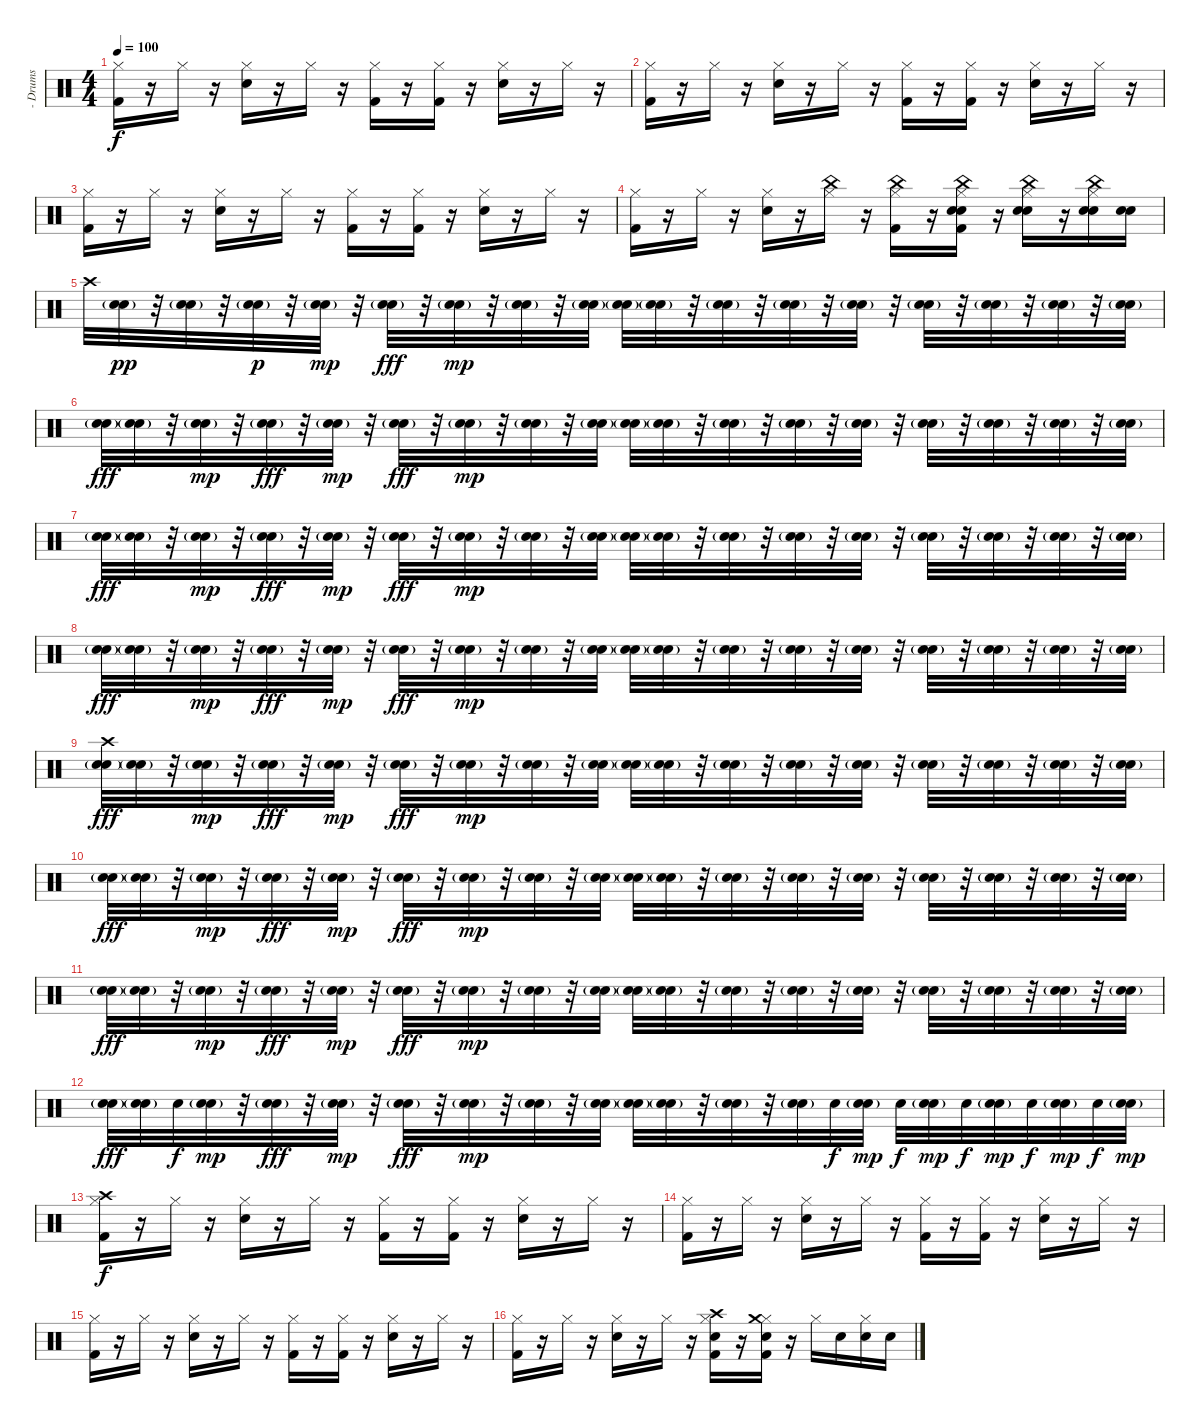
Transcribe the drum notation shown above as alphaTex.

\track ("- Drums" "- Drums") {instrument percussion}
\staff {score}
\articulation defaults
\ts (4 4)
\tempo 100
\clef neutral
\ks c
("Hi-Hat (closed)" "Kick (hit) 2").16{dy f} r.16 "Hi-Hat (closed)".16 r.16 ("Hi-Hat (closed)" "Electric Snare (hit)").16 r.16 "Hi-Hat (closed)".16 r.16 ("Hi-Hat (closed)" "Kick (hit) 2").16 r.16 ("Hi-Hat (closed)" "Kick (hit) 2").16 r.16 ("Hi-Hat (closed)" "Electric Snare (hit)").16 r.16 "Hi-Hat (closed)".16 r.16 |
("Hi-Hat (closed)" "Kick (hit) 2").16 r.16 "Hi-Hat (closed)".16 r.16 ("Hi-Hat (closed)" "Electric Snare (hit)").16 r.16 "Hi-Hat (closed)".16 r.16 ("Hi-Hat (closed)" "Kick (hit) 2").16 r.16 ("Hi-Hat (closed)" "Kick (hit) 2").16 r.16 ("Hi-Hat (closed)" "Electric Snare (hit)").16 r.16 "Hi-Hat (closed)".16 r.16 |
("Hi-Hat (closed)" "Kick (hit) 2").16 r.16 "Hi-Hat (closed)".16 r.16 ("Hi-Hat (closed)" "Electric Snare (hit)").16 r.16 "Hi-Hat (closed)".16 r.16 ("Hi-Hat (closed)" "Kick (hit) 2").16 r.16 ("Hi-Hat (closed)" "Kick (hit) 2").16 r.16 ("Hi-Hat (closed)" "Electric Snare (hit)").16 r.16 "Hi-Hat (closed)".16 r.16 |
("Hi-Hat (closed)" "Kick (hit) 2").16 r.16 "Hi-Hat (closed)".16 r.16 ("Hi-Hat (closed)" "Electric Snare (hit)").16 r.16 ("Hi-Hat (closed)" "China (hit)").16 r.16 ("Hi-Hat (closed)" "China (hit)" "Kick (hit) 2").16 r.16 ("Hi-Hat (closed)" "China (hit)" "Snare (hit) 2" "Electric Snare (hit)" "Kick (hit) 2").16 r.16 ("Hi-Hat (closed)" "China (hit)" "Snare (hit) 2" "Electric Snare (hit)").16 r.16 ("Hi-Hat (closed)" "China (hit)" "Snare (hit) 2" "Electric Snare (hit)").16 ("Snare (hit) 2" "Electric Snare (hit)").16 |
"Crash high (hit)".32 ("Snare (hit) 2"{g} "Electric Snare (hit)").32{dy pp} r.32 ("Snare (hit) 2"{g} "Electric Snare (hit)").32 r.32 ("Snare (hit) 2"{g} "Electric Snare (hit)").32{dy p} r.32 ("Snare (hit) 2"{g} "Electric Snare (hit)").32{dy mp} r.32 ("Snare (hit) 2"{g} "Electric Snare (hit)").32{dy fff} r.32 ("Snare (hit) 2"{g} "Electric Snare (hit)").32{dy mp} r.32 ("Snare (hit) 2"{g} "Electric Snare (hit)").32 r.32 ("Snare (hit) 2"{g} "Electric Snare (hit)").32 ("Snare (hit) 2"{g} "Electric Snare (hit)").32 ("Snare (hit) 2"{g} "Electric Snare (hit)").32 r.32 ("Snare (hit) 2"{g} "Electric Snare (hit)").32 r.32 ("Snare (hit) 2"{g} "Electric Snare (hit)").32 r.32 ("Snare (hit) 2"{g} "Electric Snare (hit)").32 r.32 ("Snare (hit) 2"{g} "Electric Snare (hit)").32 r.32 ("Snare (hit) 2"{g} "Electric Snare (hit)").32 r.32 ("Snare (hit) 2"{g} "Electric Snare (hit)").32 r.32 ("Snare (hit) 2"{g} "Electric Snare (hit)").32 |
("Snare (hit) 2"{g} "Electric Snare (hit)").32{dy fff} ("Snare (hit) 2"{g} "Electric Snare (hit)").32 r.32 ("Snare (hit) 2"{g} "Electric Snare (hit)").32{dy mp} r.32 ("Snare (hit) 2"{g} "Electric Snare (hit)").32{dy fff} r.32 ("Snare (hit) 2"{g} "Electric Snare (hit)").32{dy mp} r.32 ("Snare (hit) 2"{g} "Electric Snare (hit)").32{dy fff} r.32 ("Snare (hit) 2"{g} "Electric Snare (hit)").32{dy mp} r.32 ("Snare (hit) 2"{g} "Electric Snare (hit)").32 r.32 ("Snare (hit) 2"{g} "Electric Snare (hit)").32 ("Snare (hit) 2"{g} "Electric Snare (hit)").32 ("Snare (hit) 2"{g} "Electric Snare (hit)").32 r.32 ("Snare (hit) 2"{g} "Electric Snare (hit)").32 r.32 ("Snare (hit) 2"{g} "Electric Snare (hit)").32 r.32 ("Snare (hit) 2"{g} "Electric Snare (hit)").32 r.32 ("Snare (hit) 2"{g} "Electric Snare (hit)").32 r.32 ("Snare (hit) 2"{g} "Electric Snare (hit)").32 r.32 ("Snare (hit) 2"{g} "Electric Snare (hit)").32 r.32 ("Snare (hit) 2"{g} "Electric Snare (hit)").32 |
("Snare (hit) 2"{g} "Electric Snare (hit)").32{dy fff} ("Snare (hit) 2"{g} "Electric Snare (hit)").32 r.32 ("Snare (hit) 2"{g} "Electric Snare (hit)").32{dy mp} r.32 ("Snare (hit) 2"{g} "Electric Snare (hit)").32{dy fff} r.32 ("Snare (hit) 2"{g} "Electric Snare (hit)").32{dy mp} r.32 ("Snare (hit) 2"{g} "Electric Snare (hit)").32{dy fff} r.32 ("Snare (hit) 2"{g} "Electric Snare (hit)").32{dy mp} r.32 ("Snare (hit) 2"{g} "Electric Snare (hit)").32 r.32 ("Snare (hit) 2"{g} "Electric Snare (hit)").32 ("Snare (hit) 2"{g} "Electric Snare (hit)").32 ("Snare (hit) 2"{g} "Electric Snare (hit)").32 r.32 ("Snare (hit) 2"{g} "Electric Snare (hit)").32 r.32 ("Snare (hit) 2"{g} "Electric Snare (hit)").32 r.32 ("Snare (hit) 2"{g} "Electric Snare (hit)").32 r.32 ("Snare (hit) 2"{g} "Electric Snare (hit)").32 r.32 ("Snare (hit) 2"{g} "Electric Snare (hit)").32 r.32 ("Snare (hit) 2"{g} "Electric Snare (hit)").32 r.32 ("Snare (hit) 2"{g} "Electric Snare (hit)").32 |
("Snare (hit) 2"{g} "Electric Snare (hit)").32{dy fff} ("Snare (hit) 2"{g} "Electric Snare (hit)").32 r.32 ("Snare (hit) 2"{g} "Electric Snare (hit)").32{dy mp} r.32 ("Snare (hit) 2"{g} "Electric Snare (hit)").32{dy fff} r.32 ("Snare (hit) 2"{g} "Electric Snare (hit)").32{dy mp} r.32 ("Snare (hit) 2"{g} "Electric Snare (hit)").32{dy fff} r.32 ("Snare (hit) 2"{g} "Electric Snare (hit)").32{dy mp} r.32 ("Snare (hit) 2"{g} "Electric Snare (hit)").32 r.32 ("Snare (hit) 2"{g} "Electric Snare (hit)").32 ("Snare (hit) 2"{g} "Electric Snare (hit)").32 ("Snare (hit) 2"{g} "Electric Snare (hit)").32 r.32 ("Snare (hit) 2"{g} "Electric Snare (hit)").32 r.32 ("Snare (hit) 2"{g} "Electric Snare (hit)").32 r.32 ("Snare (hit) 2"{g} "Electric Snare (hit)").32 r.32 ("Snare (hit) 2"{g} "Electric Snare (hit)").32 r.32 ("Snare (hit) 2"{g} "Electric Snare (hit)").32 r.32 ("Snare (hit) 2"{g} "Electric Snare (hit)").32 r.32 ("Snare (hit) 2"{g} "Electric Snare (hit)").32 |
("Crash high (hit)" "Snare (hit) 2"{g} "Electric Snare (hit)").32{dy fff} ("Snare (hit) 2"{g} "Electric Snare (hit)").32 r.32 ("Snare (hit) 2"{g} "Electric Snare (hit)").32{dy mp} r.32 ("Snare (hit) 2"{g} "Electric Snare (hit)").32{dy fff} r.32 ("Snare (hit) 2"{g} "Electric Snare (hit)").32{dy mp} r.32 ("Snare (hit) 2"{g} "Electric Snare (hit)").32{dy fff} r.32 ("Snare (hit) 2"{g} "Electric Snare (hit)").32{dy mp} r.32 ("Snare (hit) 2"{g} "Electric Snare (hit)").32 r.32 ("Snare (hit) 2"{g} "Electric Snare (hit)").32 ("Snare (hit) 2"{g} "Electric Snare (hit)").32 ("Snare (hit) 2"{g} "Electric Snare (hit)").32 r.32 ("Snare (hit) 2"{g} "Electric Snare (hit)").32 r.32 ("Snare (hit) 2"{g} "Electric Snare (hit)").32 r.32 ("Snare (hit) 2"{g} "Electric Snare (hit)").32 r.32 ("Snare (hit) 2"{g} "Electric Snare (hit)").32 r.32 ("Snare (hit) 2"{g} "Electric Snare (hit)").32 r.32 ("Snare (hit) 2"{g} "Electric Snare (hit)").32 r.32 ("Snare (hit) 2"{g} "Electric Snare (hit)").32 |
("Snare (hit) 2"{g} "Electric Snare (hit)").32{dy fff} ("Snare (hit) 2"{g} "Electric Snare (hit)").32 r.32 ("Snare (hit) 2"{g} "Electric Snare (hit)").32{dy mp} r.32 ("Snare (hit) 2"{g} "Electric Snare (hit)").32{dy fff} r.32 ("Snare (hit) 2"{g} "Electric Snare (hit)").32{dy mp} r.32 ("Snare (hit) 2"{g} "Electric Snare (hit)").32{dy fff} r.32 ("Snare (hit) 2"{g} "Electric Snare (hit)").32{dy mp} r.32 ("Snare (hit) 2"{g} "Electric Snare (hit)").32 r.32 ("Snare (hit) 2"{g} "Electric Snare (hit)").32 ("Snare (hit) 2"{g} "Electric Snare (hit)").32 ("Snare (hit) 2"{g} "Electric Snare (hit)").32 r.32 ("Snare (hit) 2"{g} "Electric Snare (hit)").32 r.32 ("Snare (hit) 2"{g} "Electric Snare (hit)").32 r.32 ("Snare (hit) 2"{g} "Electric Snare (hit)").32 r.32 ("Snare (hit) 2"{g} "Electric Snare (hit)").32 r.32 ("Snare (hit) 2"{g} "Electric Snare (hit)").32 r.32 ("Snare (hit) 2"{g} "Electric Snare (hit)").32 r.32 ("Snare (hit) 2"{g} "Electric Snare (hit)").32 |
("Snare (hit) 2"{g} "Electric Snare (hit)").32{dy fff} ("Snare (hit) 2"{g} "Electric Snare (hit)").32 r.32 ("Snare (hit) 2"{g} "Electric Snare (hit)").32{dy mp} r.32 ("Snare (hit) 2"{g} "Electric Snare (hit)").32{dy fff} r.32 ("Snare (hit) 2"{g} "Electric Snare (hit)").32{dy mp} r.32 ("Snare (hit) 2"{g} "Electric Snare (hit)").32{dy fff} r.32 ("Snare (hit) 2"{g} "Electric Snare (hit)").32{dy mp} r.32 ("Snare (hit) 2"{g} "Electric Snare (hit)").32 r.32 ("Snare (hit) 2"{g} "Electric Snare (hit)").32 ("Snare (hit) 2"{g} "Electric Snare (hit)").32 ("Snare (hit) 2"{g} "Electric Snare (hit)").32 r.32 ("Snare (hit) 2"{g} "Electric Snare (hit)").32 r.32 ("Snare (hit) 2"{g} "Electric Snare (hit)").32 r.32 ("Snare (hit) 2"{g} "Electric Snare (hit)").32 r.32 ("Snare (hit) 2"{g} "Electric Snare (hit)").32 r.32 ("Snare (hit) 2"{g} "Electric Snare (hit)").32 r.32 ("Snare (hit) 2"{g} "Electric Snare (hit)").32 r.32 ("Snare (hit) 2"{g} "Electric Snare (hit)").32 |
("Snare (hit) 2"{g} "Electric Snare (hit)").32{dy fff} ("Snare (hit) 2"{g} "Electric Snare (hit)").32 "Electric Snare (hit)".32{dy f} ("Snare (hit) 2"{g} "Electric Snare (hit)").32{dy mp} r.32 ("Snare (hit) 2"{g} "Electric Snare (hit)").32{dy fff} r.32 ("Snare (hit) 2"{g} "Electric Snare (hit)").32{dy mp} r.32 ("Snare (hit) 2"{g} "Electric Snare (hit)").32{dy fff} r.32 ("Snare (hit) 2"{g} "Electric Snare (hit)").32{dy mp} r.32 ("Snare (hit) 2"{g} "Electric Snare (hit)").32 r.32 ("Snare (hit) 2"{g} "Electric Snare (hit)").32 ("Snare (hit) 2"{g} "Electric Snare (hit)").32 ("Snare (hit) 2"{g} "Electric Snare (hit)").32 r.32 ("Snare (hit) 2"{g} "Electric Snare (hit)").32 r.32 ("Snare (hit) 2"{g} "Electric Snare (hit)").32 "Electric Snare (hit)".32{dy f} ("Snare (hit) 2"{g} "Electric Snare (hit)").32{dy mp} "Electric Snare (hit)".32{dy f} ("Snare (hit) 2"{g} "Electric Snare (hit)").32{dy mp} "Electric Snare (hit)".32{dy f} ("Snare (hit) 2"{g} "Electric Snare (hit)").32{dy mp} "Electric Snare (hit)".32{dy f} ("Snare (hit) 2"{g} "Electric Snare (hit)").32{dy mp} "Electric Snare (hit)".32{dy f} ("Snare (hit) 2"{g} "Electric Snare (hit)").32{dy mp} |
("Hi-Hat (closed)" "Crash high (hit)" "Kick (hit) 2").16{dy f} r.16 "Hi-Hat (closed)".16 r.16 ("Hi-Hat (closed)" "Electric Snare (hit)").16 r.16 "Hi-Hat (closed)".16 r.16 ("Hi-Hat (closed)" "Kick (hit) 2").16 r.16 ("Hi-Hat (closed)" "Kick (hit) 2").16 r.16 ("Hi-Hat (closed)" "Electric Snare (hit)").16 r.16 "Hi-Hat (closed)".16 r.16 |
("Hi-Hat (closed)" "Kick (hit) 2").16 r.16 "Hi-Hat (closed)".16 r.16 ("Hi-Hat (closed)" "Electric Snare (hit)").16 r.16 "Hi-Hat (closed)".16 r.16 ("Hi-Hat (closed)" "Kick (hit) 2").16 r.16 ("Hi-Hat (closed)" "Kick (hit) 2").16 r.16 ("Hi-Hat (closed)" "Electric Snare (hit)").16 r.16 "Hi-Hat (closed)".16 r.16 |
("Hi-Hat (closed)" "Kick (hit) 2").16 r.16 "Hi-Hat (closed)".16 r.16 ("Hi-Hat (closed)" "Electric Snare (hit)").16 r.16 "Hi-Hat (closed)".16 r.16 ("Hi-Hat (closed)" "Kick (hit) 2").16 r.16 ("Hi-Hat (closed)" "Kick (hit) 2").16 r.16 ("Hi-Hat (closed)" "Electric Snare (hit)").16 r.16 "Hi-Hat (closed)".16 r.16 |
("Hi-Hat (closed)" "Kick (hit) 2").16 r.16 "Hi-Hat (closed)".16 r.16 ("Hi-Hat (closed)" "Electric Snare (hit)").16 r.16 "Hi-Hat (closed)".16 r.16 ("Hi-Hat (closed)" "Crash high (hit)" "Electric Snare (hit)" "Kick (hit) 2").16 r.16 ("Hi-Hat (closed)" "Crash medium (hit)" "Electric Snare (hit)" "Kick (hit) 2").16 r.16 "Hi-Hat (closed)".16 "Electric Snare (hit)".16 ("Hi-Hat (closed)" "Electric Snare (hit)").16 "Electric Snare (hit)".16
